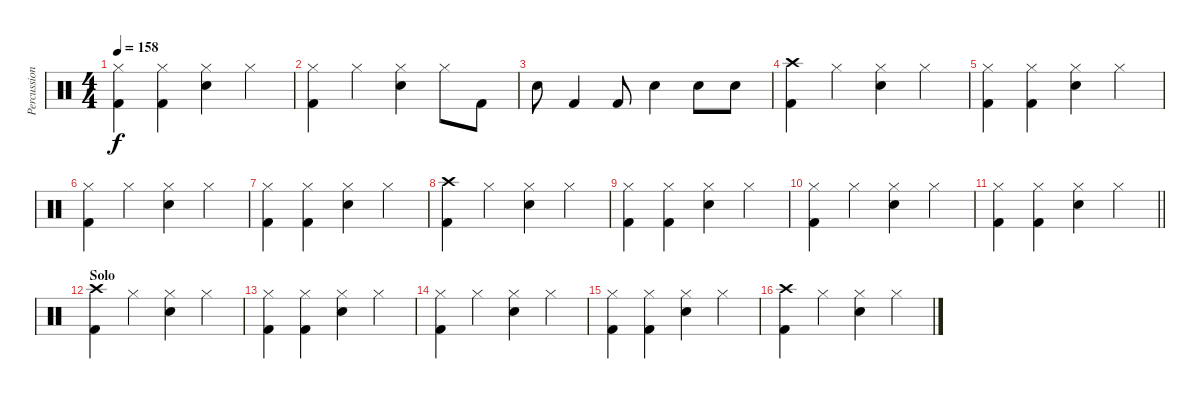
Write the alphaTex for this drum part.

\track ("Percussion" "Percussion") {instrument percussion}
\staff {score}
\articulation defaults
\ts (4 4)
\tempo 158
\clef neutral
\ks c
("Hi-Hat (closed)" "Kick (hit) 2").4{dy f} ("Hi-Hat (closed)" "Kick (hit) 2").4 ("Hi-Hat (closed)" "Snare (hit) 2").4 "Hi-Hat (closed)".4 |
("Hi-Hat (closed)" "Kick (hit) 2").4 "Hi-Hat (closed)".4 ("Hi-Hat (closed)" "Snare (hit) 2").4 "Hi-Hat (closed)".8 "Kick (hit) 2".8 |
"Snare (hit) 2".8 "Kick (hit) 2".4 "Kick (hit) 2".8 "Snare (hit) 2".4 "Snare (hit) 2".8 "Snare (hit) 2".8 |
("Crash high (hit)" "Kick (hit) 2").4 "Hi-Hat (closed)".4 ("Hi-Hat (closed)" "Snare (hit) 2").4 "Hi-Hat (closed)".4 |
("Hi-Hat (closed)" "Kick (hit) 2").4 ("Hi-Hat (closed)" "Kick (hit) 2").4 ("Hi-Hat (closed)" "Snare (hit) 2").4 "Hi-Hat (closed)".4 |
("Hi-Hat (closed)" "Kick (hit) 2").4 "Hi-Hat (closed)".4 ("Hi-Hat (closed)" "Snare (hit) 2").4 "Hi-Hat (closed)".4 |
("Hi-Hat (closed)" "Kick (hit) 2").4 ("Hi-Hat (closed)" "Kick (hit) 2").4 ("Hi-Hat (closed)" "Snare (hit) 2").4 "Hi-Hat (closed)".4 |
("Crash high (hit)" "Kick (hit) 2").4 "Hi-Hat (closed)".4 ("Hi-Hat (closed)" "Snare (hit) 2").4 "Hi-Hat (closed)".4 |
("Hi-Hat (closed)" "Kick (hit) 2").4 ("Hi-Hat (closed)" "Kick (hit) 2").4 ("Hi-Hat (closed)" "Snare (hit) 2").4 "Hi-Hat (closed)".4 |
("Hi-Hat (closed)" "Kick (hit) 2").4 "Hi-Hat (closed)".4 ("Hi-Hat (closed)" "Snare (hit) 2").4 "Hi-Hat (closed)".4 |
\barLineRight lightlight
("Hi-Hat (closed)" "Kick (hit) 2").4 ("Hi-Hat (closed)" "Kick (hit) 2").4 ("Hi-Hat (closed)" "Snare (hit) 2").4 "Hi-Hat (closed)".4 |
\section ("" "Solo")
("Crash high (hit)" "Kick (hit) 2").4 "Hi-Hat (closed)".4 ("Hi-Hat (closed)" "Snare (hit) 2").4 "Hi-Hat (closed)".4 |
("Hi-Hat (closed)" "Kick (hit) 2").4 ("Hi-Hat (closed)" "Kick (hit) 2").4 ("Hi-Hat (closed)" "Snare (hit) 2").4 "Hi-Hat (closed)".4 |
("Hi-Hat (closed)" "Kick (hit) 2").4 "Hi-Hat (closed)".4 ("Hi-Hat (closed)" "Snare (hit) 2").4 "Hi-Hat (closed)".4 |
("Hi-Hat (closed)" "Kick (hit) 2").4 ("Hi-Hat (closed)" "Kick (hit) 2").4 ("Hi-Hat (closed)" "Snare (hit) 2").4 "Hi-Hat (closed)".4 |
("Crash high (hit)" "Kick (hit) 2").4 "Hi-Hat (closed)".4 ("Hi-Hat (closed)" "Snare (hit) 2").4 "Hi-Hat (closed)".4
